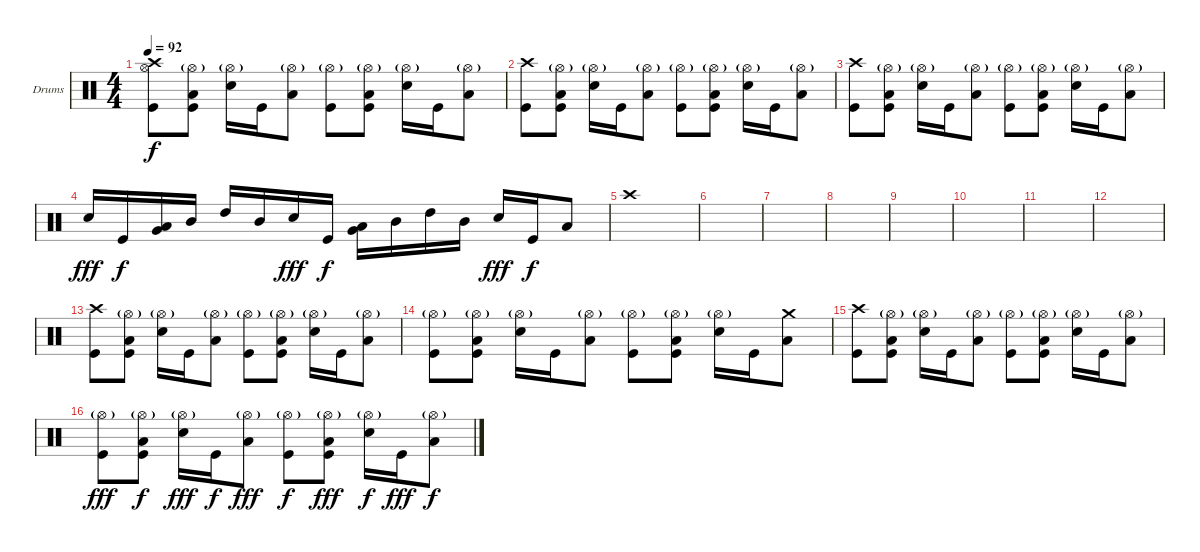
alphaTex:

\defaultSystemsLayout 4
\bracketExtendMode groupsimilarinstruments
\firstSystemTrackNameOrientation horizontal
\otherSystemsTrackNameOrientation horizontal
\track ("Drumkit" "Drums") {instrument percussion}
\staff {score}
\articulation defaults
\ts (4 4)
\tempo 92
\clef neutral
\scale
0.333333
\ks c
("Hi-Hat (open)" "Crash high (hit)" "Kick (hit)").8{dy f} ("Hi-Hat (open)"{g} "Low Tom (hit)" "Kick (hit)").8 ("Hi-Hat (open)"{g} "Snare (hit) 2").16 "Kick (hit)".16 ("Hi-Hat (open)"{g} "Low Tom (hit)").8 ("Hi-Hat (open)"{g} "Kick (hit)").8 ("Hi-Hat (open)"{g} "Low Tom (hit)" "Kick (hit)").8 ("Hi-Hat (open)"{g} "Snare (hit) 2").16 "Kick (hit)".16 ("Hi-Hat (open)"{g} "Low Tom (hit)").8 |
\scale
0.333333 ("Kick (hit)" "Crash high (hit)").8 ("Hi-Hat (open)"{g} "Low Tom (hit)" "Kick (hit)").8 ("Hi-Hat (open)"{g} "Snare (hit) 2").16 "Kick (hit)".16 ("Hi-Hat (open)"{g} "Low Tom (hit)").8 ("Hi-Hat (open)"{g} "Kick (hit)").8 ("Hi-Hat (open)"{g} "Low Tom (hit)" "Kick (hit)").8 ("Hi-Hat (open)"{g} "Snare (hit) 2").16 "Kick (hit)".16 ("Hi-Hat (open)"{g} "Low Tom (hit)").8 |
\scale
0.333333 ("Kick (hit)" "Crash high (hit)").8 ("Hi-Hat (open)"{g} "Low Tom (hit)" "Kick (hit)").8 ("Hi-Hat (open)"{g} "Snare (hit) 2").16 "Kick (hit)".16 ("Hi-Hat (open)"{g} "Low Tom (hit)").8 ("Hi-Hat (open)"{g} "Kick (hit)").8 ("Hi-Hat (open)"{g} "Low Tom (hit)" "Kick (hit)").8 ("Hi-Hat (open)"{g} "Snare (hit) 2").16 "Kick (hit)".16 ("Hi-Hat (open)"{g} "Low Tom (hit)").8 |
\scale
0.333333 "Snare (hit) 2".16{dy fff} "Kick (hit)".16{dy f} ("Low Tom (hit)" "Very Low Tom (hit)").16 "Mid Tom (hit)".16 "High Tom (hit)".16 "Mid Tom (hit)".16 "Snare (hit) 2".16{dy fff} "Kick (hit)".16{dy f} ("Low Tom (hit)" "Very Low Tom (hit)").16 "Mid Tom (hit)".16 "High Tom (hit)".16 "Mid Tom (hit)".16 "Snare (hit) 2".16{dy fff} "Kick (hit)".16{dy f} "Low Tom (hit)".8 |
"Crash high (hit)".1 |
\scale
0.333333 |
\scale
0.333333 |
\scale
0.333333 |
\scale
0.333333 |
\scale
0.333333 |
\scale
0.333333 |
\scale
0.333333 |
\scale
0.333333 ("Kick (hit)" "Crash high (hit)").8 ("Hi-Hat (open)"{g} "Low Tom (hit)" "Kick (hit)").8 ("Hi-Hat (open)"{g} "Snare (hit) 2").16 "Kick (hit)".16 ("Hi-Hat (open)"{g} "Low Tom (hit)").8 ("Hi-Hat (open)"{g} "Kick (hit)").8 ("Hi-Hat (open)"{g} "Low Tom (hit)" "Kick (hit)").8 ("Hi-Hat (open)"{g} "Snare (hit) 2").16 "Kick (hit)".16 ("Hi-Hat (open)"{g} "Low Tom (hit)").8 |
\scale
0.333333 ("Hi-Hat (open)"{g} "Kick (hit)").8 ("Hi-Hat (open)"{g} "Low Tom (hit)" "Kick (hit)").8 ("Hi-Hat (open)"{g} "Snare (hit) 2").16 "Kick (hit)".16 ("Hi-Hat (open)"{g} "Low Tom (hit)").8 ("Hi-Hat (open)"{g} "Kick (hit)").8 ("Hi-Hat (open)"{g} "Low Tom (hit)" "Kick (hit)").8 ("Hi-Hat (open)"{g} "Snare (hit) 2").16 "Kick (hit)".16 ("Low Tom (hit)" "Crash medium (hit)").8 |
\scale
0.333333 ("Kick (hit)" "Crash high (hit)").8 ("Hi-Hat (open)"{g} "Low Tom (hit)" "Kick (hit)").8 ("Hi-Hat (open)"{g} "Snare (hit) 2").16 "Kick (hit)".16 ("Hi-Hat (open)"{g} "Low Tom (hit)").8 ("Hi-Hat (open)"{g} "Kick (hit)").8 ("Hi-Hat (open)"{g} "Low Tom (hit)" "Kick (hit)").8 ("Hi-Hat (open)"{g} "Snare (hit) 2").16 "Kick (hit)".16 ("Hi-Hat (open)"{g} "Low Tom (hit)").8 |
\scale
0.333333 ("Hi-Hat (open)"{g} "Kick (hit)").8{dy fff} ("Hi-Hat (open)"{g} "Low Tom (hit)" "Kick (hit)").8{dy f} ("Hi-Hat (open)"{g} "Snare (hit) 2").16{dy fff} "Kick (hit)".16{dy f} ("Hi-Hat (open)"{g} "Low Tom (hit)").8{dy fff} ("Hi-Hat (open)"{g} "Kick (hit)").8{dy f} ("Hi-Hat (open)"{g} "Low Tom (hit)" "Kick (hit)").8{dy fff} ("Hi-Hat (open)"{g} "Snare (hit) 2").16{dy f} "Kick (hit)".16{dy fff} ("Hi-Hat (open)"{g} "Low Tom (hit)").8{dy f}
